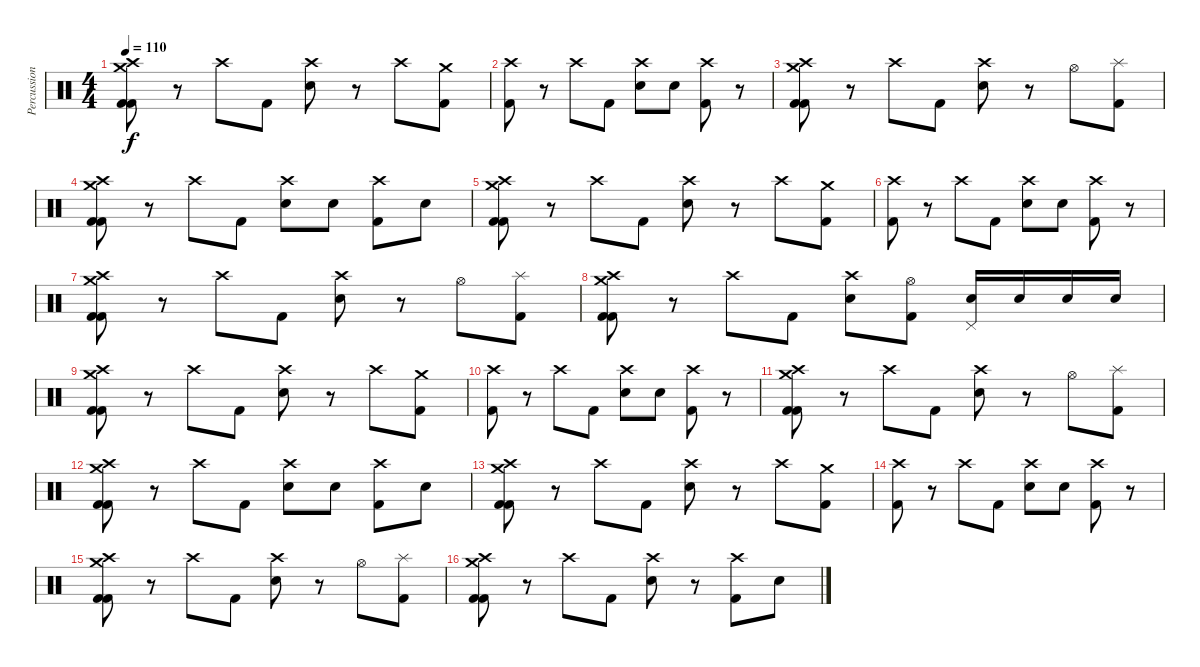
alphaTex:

\track ("Percussion" "Percussion") {instrument percussion}
\staff {score}
\articulation defaults
\ts (4 4)
\tempo 110
\clef neutral
\ks c
("Crash medium (hit)" "Crash high (hit)" "Kick (hit) 2" "Kick (hit) 2").8{dy f} r.8 "Crash high (hit)".8 "Kick (hit) 2".8 ("Crash high (hit)" "Electric Snare (hit)").8 r.8 "Crash high (hit)".8 ("Crash medium (hit)" "Kick (hit) 2").8 |
("Crash high (hit)" "Kick (hit) 2").8 r.8 "Crash high (hit)".8 "Kick (hit) 2".8 ("Crash high (hit)" "Electric Snare (hit)").8 "Electric Snare (hit)".8 ("Crash high (hit)" "Kick (hit) 2").8 r.8 |
("Crash medium (hit)" "Crash high (hit)" "Kick (hit) 2" "Kick (hit) 2").8 r.8 "Crash high (hit)".8 "Kick (hit) 2".8 ("Crash high (hit)" "Electric Snare (hit)").8 r.8 "Hi-Hat (open)".8 ("Splash (hit)" "Kick (hit) 2").8 |
("Crash medium (hit)" "Crash high (hit)" "Kick (hit) 2" "Kick (hit) 2").8 r.8 "Crash high (hit)".8 "Kick (hit) 2".8 ("Crash high (hit)" "Electric Snare (hit)").8 "Electric Snare (hit)".8 ("Crash high (hit)" "Kick (hit) 2").8 "Electric Snare (hit)".8 |
("Crash medium (hit)" "Crash high (hit)" "Kick (hit) 2" "Kick (hit) 2").8 r.8 "Crash high (hit)".8 "Kick (hit) 2".8 ("Crash high (hit)" "Electric Snare (hit)").8 r.8 "Crash high (hit)".8 ("Crash medium (hit)" "Kick (hit) 2").8 |
("Crash high (hit)" "Kick (hit) 2").8 r.8 "Crash high (hit)".8 "Kick (hit) 2".8 ("Crash high (hit)" "Electric Snare (hit)").8 "Electric Snare (hit)".8 ("Crash high (hit)" "Kick (hit) 2").8 r.8 |
("Crash medium (hit)" "Crash high (hit)" "Kick (hit) 2" "Kick (hit) 2").8 r.8 "Crash high (hit)".8 "Kick (hit) 2".8 ("Crash high (hit)" "Electric Snare (hit)").8 r.8 "Hi-Hat (open)".8 ("Splash (hit)" "Kick (hit) 2").8 |
("Crash medium (hit)" "Crash high (hit)" "Kick (hit) 2" "Kick (hit) 2").8 r.8 "Crash high (hit)".8 "Kick (hit) 2".8 ("Crash high (hit)" "Electric Snare (hit)").8 ("Hi-Hat (open)" "Kick (hit) 2").8 ("Pedal Hi-Hat (hit)" "Electric Snare (hit)").16 "Electric Snare (hit)".16 "Electric Snare (hit)".16 "Electric Snare (hit)".16 |
("Crash medium (hit)" "Crash high (hit)" "Kick (hit) 2" "Kick (hit) 2").8 r.8 "Crash high (hit)".8 "Kick (hit) 2".8 ("Crash high (hit)" "Electric Snare (hit)").8 r.8 "Crash high (hit)".8 ("Crash medium (hit)" "Kick (hit) 2").8 |
("Crash high (hit)" "Kick (hit) 2").8 r.8 "Crash high (hit)".8 "Kick (hit) 2".8 ("Crash high (hit)" "Electric Snare (hit)").8 "Electric Snare (hit)".8 ("Crash high (hit)" "Kick (hit) 2").8 r.8 |
("Crash medium (hit)" "Crash high (hit)" "Kick (hit) 2" "Kick (hit) 2").8 r.8 "Crash high (hit)".8 "Kick (hit) 2".8 ("Crash high (hit)" "Electric Snare (hit)").8 r.8 "Hi-Hat (open)".8 ("Splash (hit)" "Kick (hit) 2").8 |
("Crash medium (hit)" "Crash high (hit)" "Kick (hit) 2" "Kick (hit) 2").8 r.8 "Crash high (hit)".8 "Kick (hit) 2".8 ("Crash high (hit)" "Electric Snare (hit)").8 "Electric Snare (hit)".8 ("Crash high (hit)" "Kick (hit) 2").8 "Electric Snare (hit)".8 |
("Crash medium (hit)" "Crash high (hit)" "Kick (hit) 2" "Kick (hit) 2").8 r.8 "Crash high (hit)".8 "Kick (hit) 2".8 ("Crash high (hit)" "Electric Snare (hit)").8 r.8 "Crash high (hit)".8 ("Crash medium (hit)" "Kick (hit) 2").8 |
("Crash high (hit)" "Kick (hit) 2").8 r.8 "Crash high (hit)".8 "Kick (hit) 2".8 ("Crash high (hit)" "Electric Snare (hit)").8 "Electric Snare (hit)".8 ("Crash high (hit)" "Kick (hit) 2").8 r.8 |
("Crash medium (hit)" "Crash high (hit)" "Kick (hit) 2" "Kick (hit) 2").8 r.8 "Crash high (hit)".8 "Kick (hit) 2".8 ("Crash high (hit)" "Electric Snare (hit)").8 r.8 "Hi-Hat (open)".8 ("Splash (hit)" "Kick (hit) 2").8 |
("Crash medium (hit)" "Crash high (hit)" "Kick (hit) 2" "Kick (hit) 2").8 r.8 "Crash high (hit)".8 "Kick (hit) 2".8 ("Crash high (hit)" "Electric Snare (hit)").8 r.8 ("Crash high (hit)" "Kick (hit) 2").8 "Electric Snare (hit)".8
